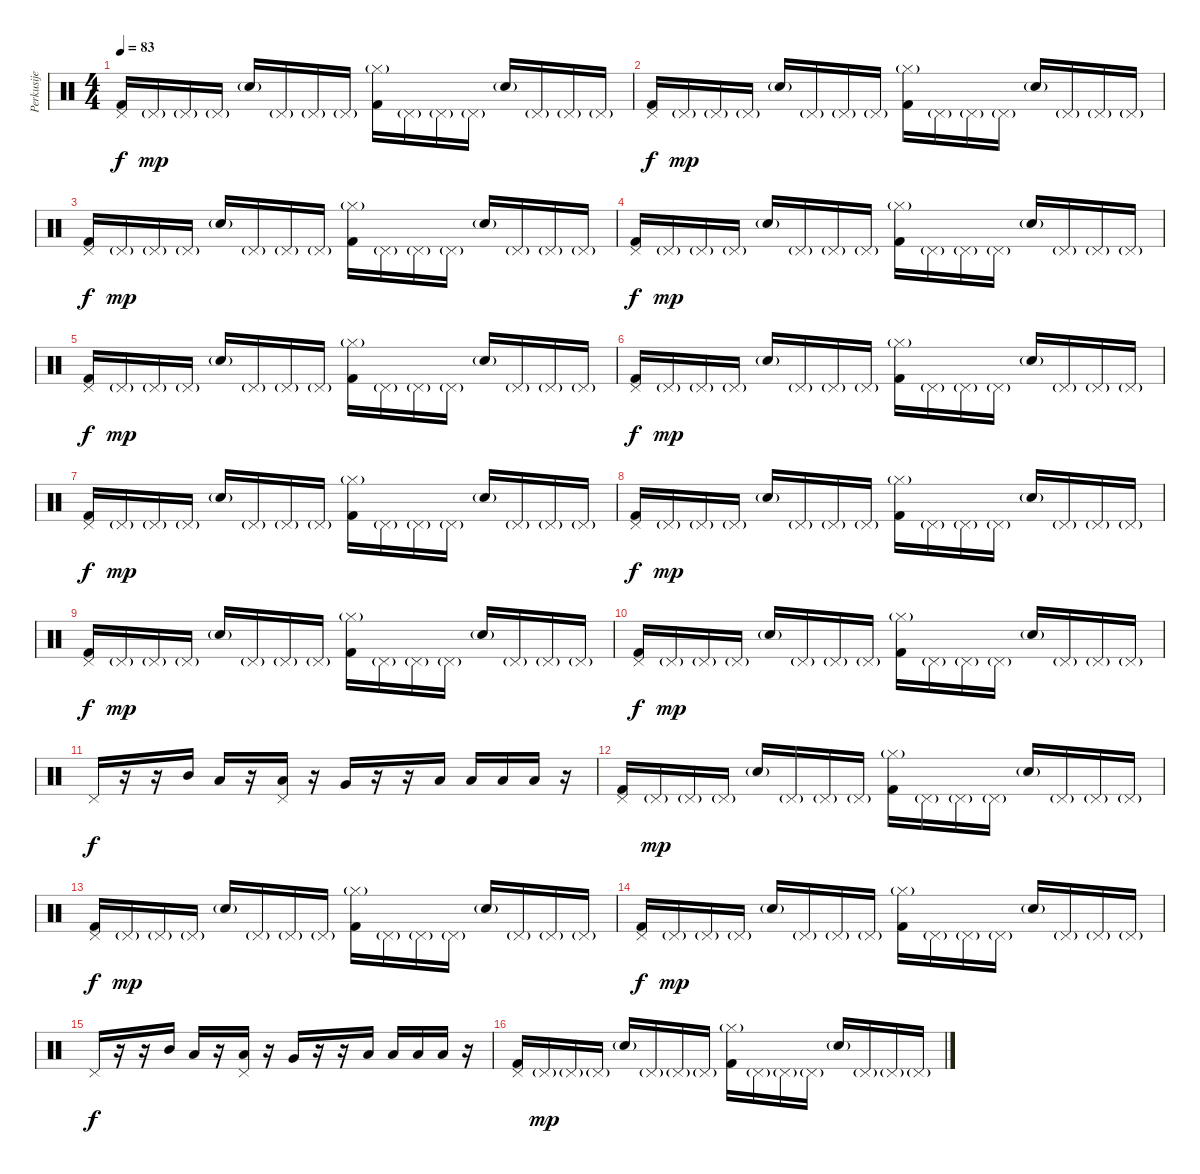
\track ("Perkusije" "Perkusije") {instrument percussion}
\staff {score}
\articulation defaults
\ts (4 4)
\tempo 83
\clef neutral
\ks c
("Pedal Hi-Hat (hit)" "Kick (hit) 2").16{dy f} "Pedal Hi-Hat (hit)"{g}.16{dy mp} "Pedal Hi-Hat (hit)"{g}.16 "Pedal Hi-Hat (hit)"{g}.16 "Snare (hit) 2"{g}.16 "Pedal Hi-Hat (hit)"{g}.16 "Pedal Hi-Hat (hit)"{g}.16 "Pedal Hi-Hat (hit)"{g}.16 ("Hi-Hat (closed)"{g} "Kick (hit) 2").16 "Pedal Hi-Hat (hit)"{g}.16 "Pedal Hi-Hat (hit)"{g}.16 "Pedal Hi-Hat (hit)"{g}.16 "Snare (hit) 2"{g}.16 "Pedal Hi-Hat (hit)"{g}.16 "Pedal Hi-Hat (hit)"{g}.16 "Pedal Hi-Hat (hit)"{g}.16 |
("Pedal Hi-Hat (hit)" "Kick (hit) 2").16{dy f} "Pedal Hi-Hat (hit)"{g}.16{dy mp} "Pedal Hi-Hat (hit)"{g}.16 "Pedal Hi-Hat (hit)"{g}.16 "Snare (hit) 2"{g}.16 "Pedal Hi-Hat (hit)"{g}.16 "Pedal Hi-Hat (hit)"{g}.16 "Pedal Hi-Hat (hit)"{g}.16 ("Hi-Hat (closed)"{g} "Kick (hit) 2").16 "Pedal Hi-Hat (hit)"{g}.16 "Pedal Hi-Hat (hit)"{g}.16 "Pedal Hi-Hat (hit)"{g}.16 "Snare (hit) 2"{g}.16 "Pedal Hi-Hat (hit)"{g}.16 "Pedal Hi-Hat (hit)"{g}.16 "Pedal Hi-Hat (hit)"{g}.16 |
("Pedal Hi-Hat (hit)" "Kick (hit) 2").16{dy f} "Pedal Hi-Hat (hit)"{g}.16{dy mp} "Pedal Hi-Hat (hit)"{g}.16 "Pedal Hi-Hat (hit)"{g}.16 "Snare (hit) 2"{g}.16 "Pedal Hi-Hat (hit)"{g}.16 "Pedal Hi-Hat (hit)"{g}.16 "Pedal Hi-Hat (hit)"{g}.16 ("Hi-Hat (closed)"{g} "Kick (hit) 2").16 "Pedal Hi-Hat (hit)"{g}.16 "Pedal Hi-Hat (hit)"{g}.16 "Pedal Hi-Hat (hit)"{g}.16 "Snare (hit) 2"{g}.16 "Pedal Hi-Hat (hit)"{g}.16 "Pedal Hi-Hat (hit)"{g}.16 "Pedal Hi-Hat (hit)"{g}.16 |
("Pedal Hi-Hat (hit)" "Kick (hit) 2").16{dy f} "Pedal Hi-Hat (hit)"{g}.16{dy mp} "Pedal Hi-Hat (hit)"{g}.16 "Pedal Hi-Hat (hit)"{g}.16 "Snare (hit) 2"{g}.16 "Pedal Hi-Hat (hit)"{g}.16 "Pedal Hi-Hat (hit)"{g}.16 "Pedal Hi-Hat (hit)"{g}.16 ("Hi-Hat (closed)"{g} "Kick (hit) 2").16 "Pedal Hi-Hat (hit)"{g}.16 "Pedal Hi-Hat (hit)"{g}.16 "Pedal Hi-Hat (hit)"{g}.16 "Snare (hit) 2"{g}.16 "Pedal Hi-Hat (hit)"{g}.16 "Pedal Hi-Hat (hit)"{g}.16 "Pedal Hi-Hat (hit)"{g}.16 |
("Pedal Hi-Hat (hit)" "Kick (hit) 2").16{dy f} "Pedal Hi-Hat (hit)"{g}.16{dy mp} "Pedal Hi-Hat (hit)"{g}.16 "Pedal Hi-Hat (hit)"{g}.16 "Snare (hit) 2"{g}.16 "Pedal Hi-Hat (hit)"{g}.16 "Pedal Hi-Hat (hit)"{g}.16 "Pedal Hi-Hat (hit)"{g}.16 ("Hi-Hat (closed)"{g} "Kick (hit) 2").16 "Pedal Hi-Hat (hit)"{g}.16 "Pedal Hi-Hat (hit)"{g}.16 "Pedal Hi-Hat (hit)"{g}.16 "Snare (hit) 2"{g}.16 "Pedal Hi-Hat (hit)"{g}.16 "Pedal Hi-Hat (hit)"{g}.16 "Pedal Hi-Hat (hit)"{g}.16 |
("Pedal Hi-Hat (hit)" "Kick (hit) 2").16{dy f} "Pedal Hi-Hat (hit)"{g}.16{dy mp} "Pedal Hi-Hat (hit)"{g}.16 "Pedal Hi-Hat (hit)"{g}.16 "Snare (hit) 2"{g}.16 "Pedal Hi-Hat (hit)"{g}.16 "Pedal Hi-Hat (hit)"{g}.16 "Pedal Hi-Hat (hit)"{g}.16 ("Hi-Hat (closed)"{g} "Kick (hit) 2").16 "Pedal Hi-Hat (hit)"{g}.16 "Pedal Hi-Hat (hit)"{g}.16 "Pedal Hi-Hat (hit)"{g}.16 "Snare (hit) 2"{g}.16 "Pedal Hi-Hat (hit)"{g}.16 "Pedal Hi-Hat (hit)"{g}.16 "Pedal Hi-Hat (hit)"{g}.16 |
("Pedal Hi-Hat (hit)" "Kick (hit) 2").16{dy f} "Pedal Hi-Hat (hit)"{g}.16{dy mp} "Pedal Hi-Hat (hit)"{g}.16 "Pedal Hi-Hat (hit)"{g}.16 "Snare (hit) 2"{g}.16 "Pedal Hi-Hat (hit)"{g}.16 "Pedal Hi-Hat (hit)"{g}.16 "Pedal Hi-Hat (hit)"{g}.16 ("Hi-Hat (closed)"{g} "Kick (hit) 2").16 "Pedal Hi-Hat (hit)"{g}.16 "Pedal Hi-Hat (hit)"{g}.16 "Pedal Hi-Hat (hit)"{g}.16 "Snare (hit) 2"{g}.16 "Pedal Hi-Hat (hit)"{g}.16 "Pedal Hi-Hat (hit)"{g}.16 "Pedal Hi-Hat (hit)"{g}.16 |
("Pedal Hi-Hat (hit)" "Kick (hit) 2").16{dy f} "Pedal Hi-Hat (hit)"{g}.16{dy mp} "Pedal Hi-Hat (hit)"{g}.16 "Pedal Hi-Hat (hit)"{g}.16 "Snare (hit) 2"{g}.16 "Pedal Hi-Hat (hit)"{g}.16 "Pedal Hi-Hat (hit)"{g}.16 "Pedal Hi-Hat (hit)"{g}.16 ("Hi-Hat (closed)"{g} "Kick (hit) 2").16 "Pedal Hi-Hat (hit)"{g}.16 "Pedal Hi-Hat (hit)"{g}.16 "Pedal Hi-Hat (hit)"{g}.16 "Snare (hit) 2"{g}.16 "Pedal Hi-Hat (hit)"{g}.16 "Pedal Hi-Hat (hit)"{g}.16 "Pedal Hi-Hat (hit)"{g}.16 |
("Pedal Hi-Hat (hit)" "Kick (hit) 2").16{dy f} "Pedal Hi-Hat (hit)"{g}.16{dy mp} "Pedal Hi-Hat (hit)"{g}.16 "Pedal Hi-Hat (hit)"{g}.16 "Snare (hit) 2"{g}.16 "Pedal Hi-Hat (hit)"{g}.16 "Pedal Hi-Hat (hit)"{g}.16 "Pedal Hi-Hat (hit)"{g}.16 ("Hi-Hat (closed)"{g} "Kick (hit) 2").16 "Pedal Hi-Hat (hit)"{g}.16 "Pedal Hi-Hat (hit)"{g}.16 "Pedal Hi-Hat (hit)"{g}.16 "Snare (hit) 2"{g}.16 "Pedal Hi-Hat (hit)"{g}.16 "Pedal Hi-Hat (hit)"{g}.16 "Pedal Hi-Hat (hit)"{g}.16 |
("Pedal Hi-Hat (hit)" "Kick (hit) 2").16{dy f} "Pedal Hi-Hat (hit)"{g}.16{dy mp} "Pedal Hi-Hat (hit)"{g}.16 "Pedal Hi-Hat (hit)"{g}.16 "Snare (hit) 2"{g}.16 "Pedal Hi-Hat (hit)"{g}.16 "Pedal Hi-Hat (hit)"{g}.16 "Pedal Hi-Hat (hit)"{g}.16 ("Hi-Hat (closed)"{g} "Kick (hit) 2").16 "Pedal Hi-Hat (hit)"{g}.16 "Pedal Hi-Hat (hit)"{g}.16 "Pedal Hi-Hat (hit)"{g}.16 "Snare (hit) 2"{g}.16 "Pedal Hi-Hat (hit)"{g}.16 "Pedal Hi-Hat (hit)"{g}.16 "Pedal Hi-Hat (hit)"{g}.16 |
"Pedal Hi-Hat (hit)".16{dy f} r.16 r.16 "Mid Tom (hit)".16 "Low Tom (hit)".16 r.16 ("Pedal Hi-Hat (hit)" "Low Tom (hit)").16 r.16 "Very Low Tom (hit)".16 r.16 r.16 "Low Floor Tom (hit)".16 "Low Floor Tom (hit)".16 "Low Floor Tom (hit)".16 "Low Floor Tom (hit)".16 r.16 |
("Pedal Hi-Hat (hit)" "Kick (hit) 2").16 "Pedal Hi-Hat (hit)"{g}.16{dy mp} "Pedal Hi-Hat (hit)"{g}.16 "Pedal Hi-Hat (hit)"{g}.16 "Snare (hit) 2"{g}.16 "Pedal Hi-Hat (hit)"{g}.16 "Pedal Hi-Hat (hit)"{g}.16 "Pedal Hi-Hat (hit)"{g}.16 ("Hi-Hat (closed)"{g} "Kick (hit) 2").16 "Pedal Hi-Hat (hit)"{g}.16 "Pedal Hi-Hat (hit)"{g}.16 "Pedal Hi-Hat (hit)"{g}.16 "Snare (hit) 2"{g}.16 "Pedal Hi-Hat (hit)"{g}.16 "Pedal Hi-Hat (hit)"{g}.16 "Pedal Hi-Hat (hit)"{g}.16 |
("Pedal Hi-Hat (hit)" "Kick (hit) 2").16{dy f} "Pedal Hi-Hat (hit)"{g}.16{dy mp} "Pedal Hi-Hat (hit)"{g}.16 "Pedal Hi-Hat (hit)"{g}.16 "Snare (hit) 2"{g}.16 "Pedal Hi-Hat (hit)"{g}.16 "Pedal Hi-Hat (hit)"{g}.16 "Pedal Hi-Hat (hit)"{g}.16 ("Hi-Hat (closed)"{g} "Kick (hit) 2").16 "Pedal Hi-Hat (hit)"{g}.16 "Pedal Hi-Hat (hit)"{g}.16 "Pedal Hi-Hat (hit)"{g}.16 "Snare (hit) 2"{g}.16 "Pedal Hi-Hat (hit)"{g}.16 "Pedal Hi-Hat (hit)"{g}.16 "Pedal Hi-Hat (hit)"{g}.16 |
("Pedal Hi-Hat (hit)" "Kick (hit) 2").16{dy f} "Pedal Hi-Hat (hit)"{g}.16{dy mp} "Pedal Hi-Hat (hit)"{g}.16 "Pedal Hi-Hat (hit)"{g}.16 "Snare (hit) 2"{g}.16 "Pedal Hi-Hat (hit)"{g}.16 "Pedal Hi-Hat (hit)"{g}.16 "Pedal Hi-Hat (hit)"{g}.16 ("Hi-Hat (closed)"{g} "Kick (hit) 2").16 "Pedal Hi-Hat (hit)"{g}.16 "Pedal Hi-Hat (hit)"{g}.16 "Pedal Hi-Hat (hit)"{g}.16 "Snare (hit) 2"{g}.16 "Pedal Hi-Hat (hit)"{g}.16 "Pedal Hi-Hat (hit)"{g}.16 "Pedal Hi-Hat (hit)"{g}.16 |
"Pedal Hi-Hat (hit)".16{dy f} r.16 r.16 "Mid Tom (hit)".16 "Low Tom (hit)".16 r.16 ("Pedal Hi-Hat (hit)" "Low Tom (hit)").16 r.16 "Very Low Tom (hit)".16 r.16 r.16 "Low Floor Tom (hit)".16 "Low Floor Tom (hit)".16 "Low Floor Tom (hit)".16 "Low Floor Tom (hit)".16 r.16 |
("Pedal Hi-Hat (hit)" "Kick (hit) 2").16 "Pedal Hi-Hat (hit)"{g}.16{dy mp} "Pedal Hi-Hat (hit)"{g}.16 "Pedal Hi-Hat (hit)"{g}.16 "Snare (hit) 2"{g}.16 "Pedal Hi-Hat (hit)"{g}.16 "Pedal Hi-Hat (hit)"{g}.16 "Pedal Hi-Hat (hit)"{g}.16 ("Hi-Hat (closed)"{g} "Kick (hit) 2").16 "Pedal Hi-Hat (hit)"{g}.16 "Pedal Hi-Hat (hit)"{g}.16 "Pedal Hi-Hat (hit)"{g}.16 "Snare (hit) 2"{g}.16 "Pedal Hi-Hat (hit)"{g}.16 "Pedal Hi-Hat (hit)"{g}.16 "Pedal Hi-Hat (hit)"{g}.16
